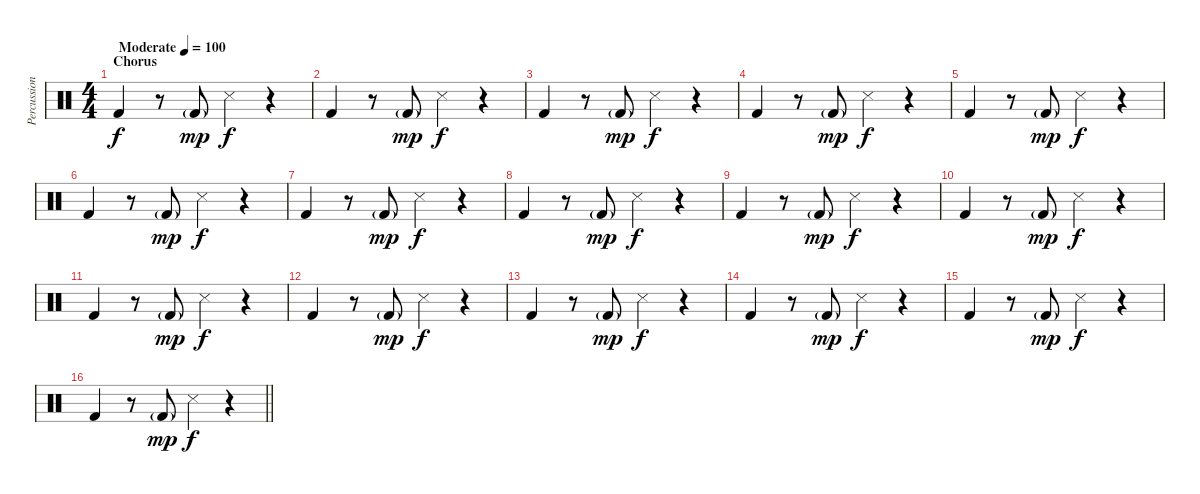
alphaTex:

\track ("Percussion" "Percussion") {instrument percussion}
\staff {score}
\articulation defaults
\ts (4 4)
\section ("" "Chorus")
\tempo (100 "Moderate")
\clef neutral
\ks c "Kick (hit) 2".4{dy f}
r.8 "Kick (hit) 2"{g}.8{dy mp} "Snare (side stick) 3".4{dy f} r.4 |
"Kick (hit) 2".4 r.8 "Kick (hit) 2"{g}.8{dy mp} "Snare (side stick) 3".4{dy f} r.4 |
"Kick (hit) 2".4 r.8 "Kick (hit) 2"{g}.8{dy mp} "Snare (side stick) 3".4{dy f} r.4 |
"Kick (hit) 2".4 r.8 "Kick (hit) 2"{g}.8{dy mp} "Snare (side stick) 3".4{dy f} r.4 |
"Kick (hit) 2".4 r.8 "Kick (hit) 2"{g}.8{dy mp} "Snare (side stick) 3".4{dy f} r.4 |
"Kick (hit) 2".4 r.8 "Kick (hit) 2"{g}.8{dy mp} "Snare (side stick) 3".4{dy f} r.4 |
"Kick (hit) 2".4 r.8 "Kick (hit) 2"{g}.8{dy mp} "Snare (side stick) 3".4{dy f} r.4 |
"Kick (hit) 2".4 r.8 "Kick (hit) 2"{g}.8{dy mp} "Snare (side stick) 3".4{dy f} r.4 |
"Kick (hit) 2".4 r.8 "Kick (hit) 2"{g}.8{dy mp} "Snare (side stick) 3".4{dy f} r.4 |
"Kick (hit) 2".4 r.8 "Kick (hit) 2"{g}.8{dy mp} "Snare (side stick) 3".4{dy f} r.4 |
"Kick (hit) 2".4 r.8 "Kick (hit) 2"{g}.8{dy mp} "Snare (side stick) 3".4{dy f} r.4 |
"Kick (hit) 2".4 r.8 "Kick (hit) 2"{g}.8{dy mp} "Snare (side stick) 3".4{dy f} r.4 |
"Kick (hit) 2".4 r.8 "Kick (hit) 2"{g}.8{dy mp} "Snare (side stick) 3".4{dy f} r.4 |
"Kick (hit) 2".4 r.8 "Kick (hit) 2"{g}.8{dy mp} "Snare (side stick) 3".4{dy f} r.4 |
"Kick (hit) 2".4 r.8 "Kick (hit) 2"{g}.8{dy mp} "Snare (side stick) 3".4{dy f} r.4 |
\barLineRight lightlight "Kick (hit) 2".4
r.8 "Kick (hit) 2"{g}.8{dy mp} "Snare (side stick) 3".4{dy f} r.4
